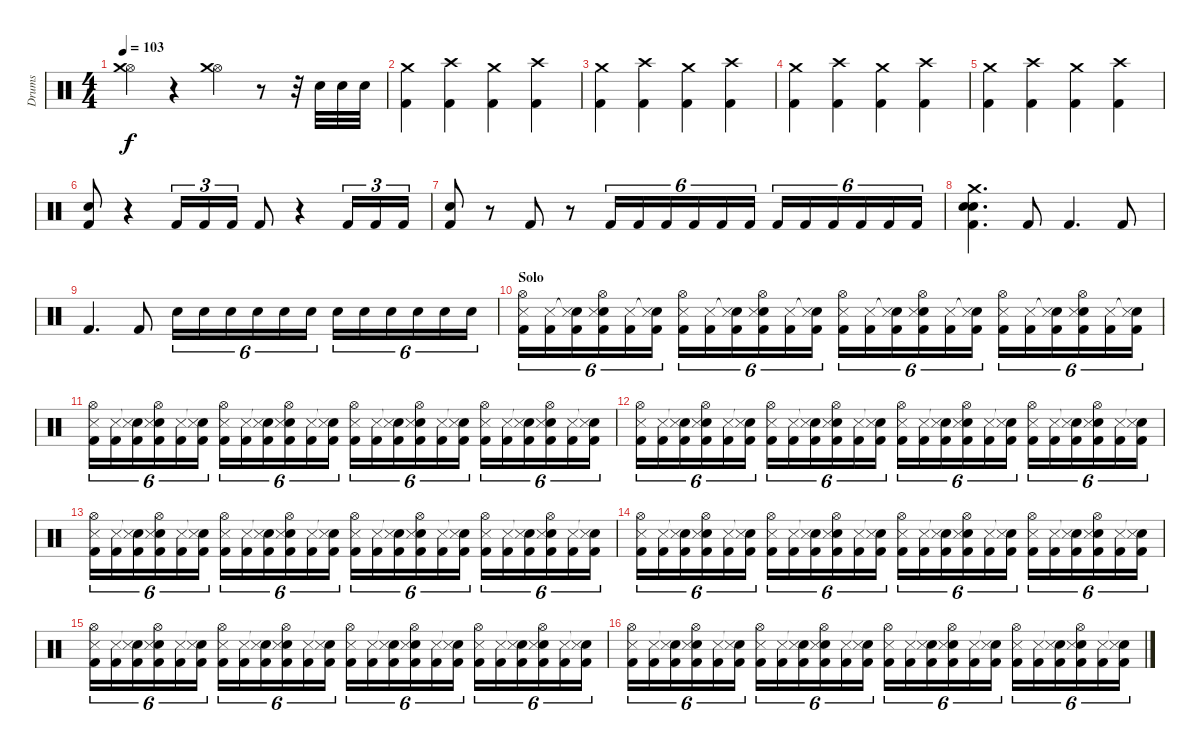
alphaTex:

\track ("Drums" "Drums") {instrument percussion}
\staff {score}
\articulation defaults
\ts (4 4)
\tempo 103
\clef neutral
\ks c
("Hi-Hat (open)" "Crash medium (hit)").4{dy f} r.4 ("Hi-Hat (open)" "Crash medium (hit)").4 r.8 r.32 "Electric Snare (hit)".32 "Electric Snare (hit)".32 "Electric Snare (hit)".32 |
("Crash medium (hit)" "Kick (hit) 2").4 ("Crash high (hit)" "Kick (hit) 2").4 ("Crash medium (hit)" "Kick (hit) 2").4 ("Crash high (hit)" "Kick (hit) 2").4 |
("Crash medium (hit)" "Kick (hit) 2").4 ("Crash high (hit)" "Kick (hit) 2").4 ("Crash medium (hit)" "Kick (hit) 2").4 ("Crash high (hit)" "Kick (hit) 2").4 |
("Crash medium (hit)" "Kick (hit) 2").4 ("Crash high (hit)" "Kick (hit) 2").4 ("Crash medium (hit)" "Kick (hit) 2").4 ("Crash high (hit)" "Kick (hit) 2").4 |
("Crash medium (hit)" "Kick (hit) 2").4 ("Crash high (hit)" "Kick (hit) 2").4 ("Crash medium (hit)" "Kick (hit) 2").4 ("Crash high (hit)" "Kick (hit) 2").4 |
("Electric Snare (hit)" "Kick (hit) 2").8 r.4 "Kick (hit) 2".16{tu (3 2)} "Kick (hit) 2".16{tu (3 2)} "Kick (hit) 2".16{tu (3 2)} "Kick (hit) 2".8 r.4 "Kick (hit) 2".16{tu (3 2)} "Kick (hit) 2".16{tu (3 2)} "Kick (hit) 2".16{tu (3 2)} |
("Electric Snare (hit)" "Kick (hit) 2").8 r.8 "Kick (hit) 2".8 r.8 "Kick (hit) 2".16{tu (6 4)} "Kick (hit) 2".16{tu (6 4)} "Kick (hit) 2".16{tu (6 4)} "Kick (hit) 2".16{tu (6 4)} "Kick (hit) 2".16{tu (6 4)} "Kick (hit) 2".16{tu (6 4)} "Kick (hit) 2".16{tu (6 4)} "Kick (hit) 2".16{tu (6 4)} "Kick (hit) 2".16{tu (6 4)} "Kick (hit) 2".16{tu (6 4)} "Kick (hit) 2".16{tu (6 4)} "Kick (hit) 2".16{tu (6 4)} |
("Snare (hit) 2" "Electric Snare (hit)" "Crash medium (hit)" "Kick (hit) 2").4{d} "Kick (hit) 2".8 "Kick (hit) 2".4{d} "Kick (hit) 2".8 |
"Kick (hit) 2".4{d} "Kick (hit) 2".8 "Electric Snare (hit)".16{tu (6 4)} "Electric Snare (hit)".16{tu (6 4)} "Electric Snare (hit)".16{tu (6 4)} "Electric Snare (hit)".16{tu (6 4)} "Electric Snare (hit)".16{tu (6 4)} "Electric Snare (hit)".16{tu (6 4)} "Electric Snare (hit)".16{tu (6 4)} "Electric Snare (hit)".16{tu (6 4)} "Electric Snare (hit)".16{tu (6 4)} "Snare (hit) 2".16{tu (6 4)} "Snare (hit) 2".16{tu (6 4)} "Snare (hit) 2".16{tu (6 4)} |
\section ("" "Solo")
("Hi-Hat (open)" "Snare (side stick) 3" "Kick (hit) 2").16{tu (6 4)} ("Snare (side stick) 3" "Kick (hit) 2").16{tu (6 4)} ("Snare (hit)"{t} "Snare (side stick) 3" "Kick (hit) 2").16{tu (6 4)} ("Hi-Hat (open)" "Electric Snare (hit)" "Snare (side stick) 3" "Kick (hit) 2").16{tu (6 4)} ("Snare (side stick) 3" "Kick (hit) 2").16{tu (6 4)} ("Snare (hit)"{t} "Snare (side stick) 3" "Kick (hit) 2").16{tu (6 4)} ("Hi-Hat (open)" "Snare (side stick) 3" "Kick (hit) 2").16{tu (6 4)} ("Snare (side stick) 3" "Kick (hit) 2").16{tu (6 4)} ("Snare (hit)"{t} "Snare (side stick) 3" "Kick (hit) 2").16{tu (6 4)} ("Hi-Hat (open)" "Electric Snare (hit)" "Snare (side stick) 3" "Kick (hit) 2").16{tu (6 4)} ("Snare (side stick) 3" "Kick (hit) 2").16{tu (6 4)} ("Snare (hit)"{t} "Snare (side stick) 3" "Kick (hit) 2").16{tu (6 4)} ("Hi-Hat (open)" "Snare (side stick) 3" "Kick (hit) 2").16{tu (6 4)} ("Snare (side stick) 3" "Kick (hit) 2").16{tu (6 4)} ("Snare (hit)"{t} "Snare (side stick) 3" "Kick (hit) 2").16{tu (6 4)} ("Hi-Hat (open)" "Electric Snare (hit)" "Snare (side stick) 3" "Kick (hit) 2").16{tu (6 4)} ("Snare (side stick) 3" "Kick (hit) 2").16{tu (6 4)} ("Snare (hit)"{t} "Snare (side stick) 3" "Kick (hit) 2").16{tu (6 4)} ("Hi-Hat (open)" "Snare (side stick) 3" "Kick (hit) 2").16{tu (6 4)} ("Snare (side stick) 3" "Kick (hit) 2").16{tu (6 4)} ("Snare (hit)"{t} "Snare (side stick) 3" "Kick (hit) 2").16{tu (6 4)} ("Hi-Hat (open)" "Electric Snare (hit)" "Snare (side stick) 3" "Kick (hit) 2").16{tu (6 4)} ("Snare (side stick) 3" "Kick (hit) 2").16{tu (6 4)} ("Snare (hit)"{t} "Snare (side stick) 3" "Kick (hit) 2").16{tu (6 4)} |
("Hi-Hat (open)" "Snare (side stick) 3" "Kick (hit) 2").16{tu (6 4)} ("Snare (side stick) 3" "Kick (hit) 2").16{tu (6 4)} ("Snare (hit)"{t} "Snare (side stick) 3" "Kick (hit) 2").16{tu (6 4)} ("Hi-Hat (open)" "Electric Snare (hit)" "Snare (side stick) 3" "Kick (hit) 2").16{tu (6 4)} ("Snare (side stick) 3" "Kick (hit) 2").16{tu (6 4)} ("Snare (hit)"{t} "Snare (side stick) 3" "Kick (hit) 2").16{tu (6 4)} ("Hi-Hat (open)" "Snare (side stick) 3" "Kick (hit) 2").16{tu (6 4)} ("Snare (side stick) 3" "Kick (hit) 2").16{tu (6 4)} ("Snare (hit)"{t} "Snare (side stick) 3" "Kick (hit) 2").16{tu (6 4)} ("Hi-Hat (open)" "Electric Snare (hit)" "Snare (side stick) 3" "Kick (hit) 2").16{tu (6 4)} ("Snare (side stick) 3" "Kick (hit) 2").16{tu (6 4)} ("Snare (hit)"{t} "Snare (side stick) 3" "Kick (hit) 2").16{tu (6 4)} ("Hi-Hat (open)" "Snare (side stick) 3" "Kick (hit) 2").16{tu (6 4)} ("Snare (side stick) 3" "Kick (hit) 2").16{tu (6 4)} ("Snare (hit)"{t} "Snare (side stick) 3" "Kick (hit) 2").16{tu (6 4)} ("Hi-Hat (open)" "Electric Snare (hit)" "Snare (side stick) 3" "Kick (hit) 2").16{tu (6 4)} ("Snare (side stick) 3" "Kick (hit) 2").16{tu (6 4)} ("Snare (hit)"{t} "Snare (side stick) 3" "Kick (hit) 2").16{tu (6 4)} ("Hi-Hat (open)" "Snare (side stick) 3" "Kick (hit) 2").16{tu (6 4)} ("Snare (side stick) 3" "Kick (hit) 2").16{tu (6 4)} ("Snare (hit)"{t} "Snare (side stick) 3" "Kick (hit) 2").16{tu (6 4)} ("Hi-Hat (open)" "Electric Snare (hit)" "Snare (side stick) 3" "Kick (hit) 2").16{tu (6 4)} ("Snare (side stick) 3" "Kick (hit) 2").16{tu (6 4)} ("Snare (hit)"{t} "Snare (side stick) 3" "Kick (hit) 2").16{tu (6 4)} |
("Hi-Hat (open)" "Snare (side stick) 3" "Kick (hit) 2").16{tu (6 4)} ("Snare (side stick) 3" "Kick (hit) 2").16{tu (6 4)} ("Snare (hit)"{t} "Snare (side stick) 3" "Kick (hit) 2").16{tu (6 4)} ("Hi-Hat (open)" "Electric Snare (hit)" "Snare (side stick) 3" "Kick (hit) 2").16{tu (6 4)} ("Snare (side stick) 3" "Kick (hit) 2").16{tu (6 4)} ("Snare (hit)"{t} "Snare (side stick) 3" "Kick (hit) 2").16{tu (6 4)} ("Hi-Hat (open)" "Snare (side stick) 3" "Kick (hit) 2").16{tu (6 4)} ("Snare (side stick) 3" "Kick (hit) 2").16{tu (6 4)} ("Snare (hit)"{t} "Snare (side stick) 3" "Kick (hit) 2").16{tu (6 4)} ("Hi-Hat (open)" "Electric Snare (hit)" "Snare (side stick) 3" "Kick (hit) 2").16{tu (6 4)} ("Snare (side stick) 3" "Kick (hit) 2").16{tu (6 4)} ("Snare (hit)"{t} "Snare (side stick) 3" "Kick (hit) 2").16{tu (6 4)} ("Hi-Hat (open)" "Snare (side stick) 3" "Kick (hit) 2").16{tu (6 4)} ("Snare (side stick) 3" "Kick (hit) 2").16{tu (6 4)} ("Snare (hit)"{t} "Snare (side stick) 3" "Kick (hit) 2").16{tu (6 4)} ("Hi-Hat (open)" "Electric Snare (hit)" "Snare (side stick) 3" "Kick (hit) 2").16{tu (6 4)} ("Snare (side stick) 3" "Kick (hit) 2").16{tu (6 4)} ("Snare (hit)"{t} "Snare (side stick) 3" "Kick (hit) 2").16{tu (6 4)} ("Hi-Hat (open)" "Snare (side stick) 3" "Kick (hit) 2").16{tu (6 4)} ("Snare (side stick) 3" "Kick (hit) 2").16{tu (6 4)} ("Snare (hit)"{t} "Snare (side stick) 3" "Kick (hit) 2").16{tu (6 4)} ("Hi-Hat (open)" "Electric Snare (hit)" "Snare (side stick) 3" "Kick (hit) 2").16{tu (6 4)} ("Snare (side stick) 3" "Kick (hit) 2").16{tu (6 4)} ("Snare (hit)"{t} "Snare (side stick) 3" "Kick (hit) 2").16{tu (6 4)} |
("Hi-Hat (open)" "Snare (side stick) 3" "Kick (hit) 2").16{tu (6 4)} ("Snare (side stick) 3" "Kick (hit) 2").16{tu (6 4)} ("Snare (hit)"{t} "Snare (side stick) 3" "Kick (hit) 2").16{tu (6 4)} ("Hi-Hat (open)" "Electric Snare (hit)" "Snare (side stick) 3" "Kick (hit) 2").16{tu (6 4)} ("Snare (side stick) 3" "Kick (hit) 2").16{tu (6 4)} ("Snare (hit)"{t} "Snare (side stick) 3" "Kick (hit) 2").16{tu (6 4)} ("Hi-Hat (open)" "Snare (side stick) 3" "Kick (hit) 2").16{tu (6 4)} ("Snare (side stick) 3" "Kick (hit) 2").16{tu (6 4)} ("Snare (hit)"{t} "Snare (side stick) 3" "Kick (hit) 2").16{tu (6 4)} ("Hi-Hat (open)" "Electric Snare (hit)" "Snare (side stick) 3" "Kick (hit) 2").16{tu (6 4)} ("Snare (side stick) 3" "Kick (hit) 2").16{tu (6 4)} ("Snare (hit)"{t} "Snare (side stick) 3" "Kick (hit) 2").16{tu (6 4)} ("Hi-Hat (open)" "Snare (side stick) 3" "Kick (hit) 2").16{tu (6 4)} ("Snare (side stick) 3" "Kick (hit) 2").16{tu (6 4)} ("Snare (hit)"{t} "Snare (side stick) 3" "Kick (hit) 2").16{tu (6 4)} ("Hi-Hat (open)" "Electric Snare (hit)" "Snare (side stick) 3" "Kick (hit) 2").16{tu (6 4)} ("Snare (side stick) 3" "Kick (hit) 2").16{tu (6 4)} ("Snare (hit)"{t} "Snare (side stick) 3" "Kick (hit) 2").16{tu (6 4)} ("Hi-Hat (open)" "Snare (side stick) 3" "Kick (hit) 2").16{tu (6 4)} ("Snare (side stick) 3" "Kick (hit) 2").16{tu (6 4)} ("Snare (hit)"{t} "Snare (side stick) 3" "Kick (hit) 2").16{tu (6 4)} ("Hi-Hat (open)" "Electric Snare (hit)" "Snare (side stick) 3" "Kick (hit) 2").16{tu (6 4)} ("Snare (side stick) 3" "Kick (hit) 2").16{tu (6 4)} ("Snare (hit)"{t} "Snare (side stick) 3" "Kick (hit) 2").16{tu (6 4)} |
("Hi-Hat (open)" "Snare (side stick) 3" "Kick (hit) 2").16{tu (6 4)} ("Snare (side stick) 3" "Kick (hit) 2").16{tu (6 4)} ("Snare (hit)"{t} "Snare (side stick) 3" "Kick (hit) 2").16{tu (6 4)} ("Hi-Hat (open)" "Electric Snare (hit)" "Snare (side stick) 3" "Kick (hit) 2").16{tu (6 4)} ("Snare (side stick) 3" "Kick (hit) 2").16{tu (6 4)} ("Snare (hit)"{t} "Snare (side stick) 3" "Kick (hit) 2").16{tu (6 4)} ("Hi-Hat (open)" "Snare (side stick) 3" "Kick (hit) 2").16{tu (6 4)} ("Snare (side stick) 3" "Kick (hit) 2").16{tu (6 4)} ("Snare (hit)"{t} "Snare (side stick) 3" "Kick (hit) 2").16{tu (6 4)} ("Hi-Hat (open)" "Electric Snare (hit)" "Snare (side stick) 3" "Kick (hit) 2").16{tu (6 4)} ("Snare (side stick) 3" "Kick (hit) 2").16{tu (6 4)} ("Snare (hit)"{t} "Snare (side stick) 3" "Kick (hit) 2").16{tu (6 4)} ("Hi-Hat (open)" "Snare (side stick) 3" "Kick (hit) 2").16{tu (6 4)} ("Snare (side stick) 3" "Kick (hit) 2").16{tu (6 4)} ("Snare (hit)"{t} "Snare (side stick) 3" "Kick (hit) 2").16{tu (6 4)} ("Hi-Hat (open)" "Electric Snare (hit)" "Snare (side stick) 3" "Kick (hit) 2").16{tu (6 4)} ("Snare (side stick) 3" "Kick (hit) 2").16{tu (6 4)} ("Snare (hit)"{t} "Snare (side stick) 3" "Kick (hit) 2").16{tu (6 4)} ("Hi-Hat (open)" "Snare (side stick) 3" "Kick (hit) 2").16{tu (6 4)} ("Snare (side stick) 3" "Kick (hit) 2").16{tu (6 4)} ("Snare (hit)"{t} "Snare (side stick) 3" "Kick (hit) 2").16{tu (6 4)} ("Hi-Hat (open)" "Electric Snare (hit)" "Snare (side stick) 3" "Kick (hit) 2").16{tu (6 4)} ("Snare (side stick) 3" "Kick (hit) 2").16{tu (6 4)} ("Snare (hit)"{t} "Snare (side stick) 3" "Kick (hit) 2").16{tu (6 4)} |
("Hi-Hat (open)" "Snare (side stick) 3" "Kick (hit) 2").16{tu (6 4)} ("Snare (side stick) 3" "Kick (hit) 2").16{tu (6 4)} ("Snare (hit)"{t} "Snare (side stick) 3" "Kick (hit) 2").16{tu (6 4)} ("Hi-Hat (open)" "Electric Snare (hit)" "Snare (side stick) 3" "Kick (hit) 2").16{tu (6 4)} ("Snare (side stick) 3" "Kick (hit) 2").16{tu (6 4)} ("Snare (hit)"{t} "Snare (side stick) 3" "Kick (hit) 2").16{tu (6 4)} ("Hi-Hat (open)" "Snare (side stick) 3" "Kick (hit) 2").16{tu (6 4)} ("Snare (side stick) 3" "Kick (hit) 2").16{tu (6 4)} ("Snare (hit)"{t} "Snare (side stick) 3" "Kick (hit) 2").16{tu (6 4)} ("Hi-Hat (open)" "Electric Snare (hit)" "Snare (side stick) 3" "Kick (hit) 2").16{tu (6 4)} ("Snare (side stick) 3" "Kick (hit) 2").16{tu (6 4)} ("Snare (hit)"{t} "Snare (side stick) 3" "Kick (hit) 2").16{tu (6 4)} ("Hi-Hat (open)" "Snare (side stick) 3" "Kick (hit) 2").16{tu (6 4)} ("Snare (side stick) 3" "Kick (hit) 2").16{tu (6 4)} ("Snare (hit)"{t} "Snare (side stick) 3" "Kick (hit) 2").16{tu (6 4)} ("Hi-Hat (open)" "Electric Snare (hit)" "Snare (side stick) 3" "Kick (hit) 2").16{tu (6 4)} ("Snare (side stick) 3" "Kick (hit) 2").16{tu (6 4)} ("Snare (hit)"{t} "Snare (side stick) 3" "Kick (hit) 2").16{tu (6 4)} ("Hi-Hat (open)" "Snare (side stick) 3" "Kick (hit) 2").16{tu (6 4)} ("Snare (side stick) 3" "Kick (hit) 2").16{tu (6 4)} ("Snare (hit)"{t} "Snare (side stick) 3" "Kick (hit) 2").16{tu (6 4)} ("Hi-Hat (open)" "Electric Snare (hit)" "Snare (side stick) 3" "Kick (hit) 2").16{tu (6 4)} ("Snare (side stick) 3" "Kick (hit) 2").16{tu (6 4)} ("Snare (hit)"{t} "Snare (side stick) 3" "Kick (hit) 2").16{tu (6 4)} |
("Hi-Hat (open)" "Snare (side stick) 3" "Kick (hit) 2").16{tu (6 4)} ("Snare (side stick) 3" "Kick (hit) 2").16{tu (6 4)} ("Snare (hit)"{t} "Snare (side stick) 3" "Kick (hit) 2").16{tu (6 4)} ("Hi-Hat (open)" "Electric Snare (hit)" "Snare (side stick) 3" "Kick (hit) 2").16{tu (6 4)} ("Snare (side stick) 3" "Kick (hit) 2").16{tu (6 4)} ("Snare (hit)"{t} "Snare (side stick) 3" "Kick (hit) 2").16{tu (6 4)} ("Hi-Hat (open)" "Snare (side stick) 3" "Kick (hit) 2").16{tu (6 4)} ("Snare (side stick) 3" "Kick (hit) 2").16{tu (6 4)} ("Snare (hit)"{t} "Snare (side stick) 3" "Kick (hit) 2").16{tu (6 4)} ("Hi-Hat (open)" "Electric Snare (hit)" "Snare (side stick) 3" "Kick (hit) 2").16{tu (6 4)} ("Snare (side stick) 3" "Kick (hit) 2").16{tu (6 4)} ("Snare (hit)"{t} "Snare (side stick) 3" "Kick (hit) 2").16{tu (6 4)} ("Hi-Hat (open)" "Snare (side stick) 3" "Kick (hit) 2").16{tu (6 4)} ("Snare (side stick) 3" "Kick (hit) 2").16{tu (6 4)} ("Snare (hit)"{t} "Snare (side stick) 3" "Kick (hit) 2").16{tu (6 4)} ("Hi-Hat (open)" "Electric Snare (hit)" "Snare (side stick) 3" "Kick (hit) 2").16{tu (6 4)} ("Snare (side stick) 3" "Kick (hit) 2").16{tu (6 4)} ("Snare (hit)"{t} "Snare (side stick) 3" "Kick (hit) 2").16{tu (6 4)} ("Hi-Hat (open)" "Snare (side stick) 3" "Kick (hit) 2").16{tu (6 4)} ("Snare (side stick) 3" "Kick (hit) 2").16{tu (6 4)} ("Snare (hit)"{t} "Snare (side stick) 3" "Kick (hit) 2").16{tu (6 4)} ("Hi-Hat (open)" "Electric Snare (hit)" "Snare (side stick) 3" "Kick (hit) 2").16{tu (6 4)} ("Snare (side stick) 3" "Kick (hit) 2").16{tu (6 4)} ("Snare (hit)"{t} "Snare (side stick) 3" "Kick (hit) 2").16{tu (6 4)}
